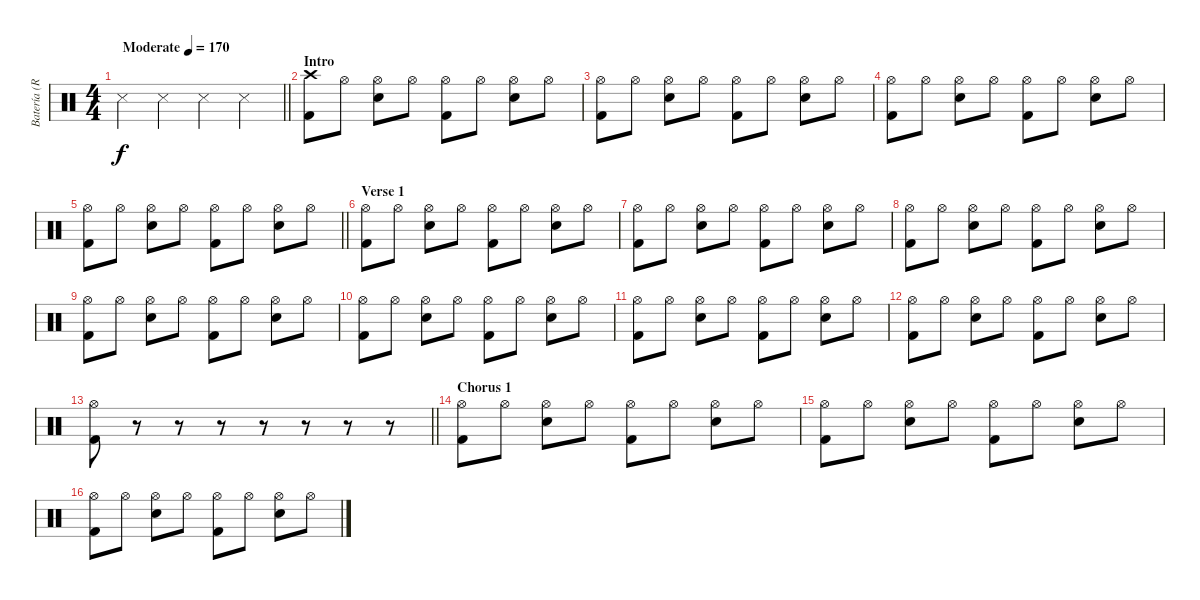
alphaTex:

\track ("Batería (Richie)" "Batería (R") {instrument percussion}
\staff {score}
\articulation defaults
\ts (4 4)
\tempo (170 "Moderate")
\clef neutral
\barLineRight lightlight
\ks c "Snare (side stick) 3".4{dy f} "Snare (side stick) 3".4 "Snare (side stick) 3".4 "Snare (side stick) 3".4
|
\section ("" "Intro")
("Crash high (hit)" "Kick (hit) 2").8 "Hi-Hat (open)".8 ("Hi-Hat (open)" "Snare (hit) 2").8 "Hi-Hat (open)".8 ("Hi-Hat (open)" "Kick (hit) 2").8 "Hi-Hat (open)".8 ("Hi-Hat (open)" "Snare (hit) 2").8 "Hi-Hat (open)".8 |
("Hi-Hat (open)" "Kick (hit) 2").8 "Hi-Hat (open)".8 ("Hi-Hat (open)" "Snare (hit) 2").8 "Hi-Hat (open)".8 ("Hi-Hat (open)" "Kick (hit) 2").8 "Hi-Hat (open)".8 ("Hi-Hat (open)" "Snare (hit) 2").8 "Hi-Hat (open)".8 |
("Hi-Hat (open)" "Kick (hit) 2").8 "Hi-Hat (open)".8 ("Hi-Hat (open)" "Snare (hit) 2").8 "Hi-Hat (open)".8 ("Hi-Hat (open)" "Kick (hit) 2").8 "Hi-Hat (open)".8 ("Hi-Hat (open)" "Snare (hit) 2").8 "Hi-Hat (open)".8 |
\barLineRight lightlight
("Hi-Hat (open)" "Kick (hit) 2").8 "Hi-Hat (open)".8 ("Hi-Hat (open)" "Snare (hit) 2").8 "Hi-Hat (open)".8 ("Hi-Hat (open)" "Kick (hit) 2").8 "Hi-Hat (open)".8 ("Hi-Hat (open)" "Snare (hit) 2").8 "Hi-Hat (open)".8 |
\section ("" "Verse 1")
("Hi-Hat (open)" "Kick (hit) 2").8 "Hi-Hat (open)".8 ("Hi-Hat (open)" "Snare (hit) 2").8 "Hi-Hat (open)".8 ("Hi-Hat (open)" "Kick (hit) 2").8 "Hi-Hat (open)".8 ("Hi-Hat (open)" "Snare (hit) 2").8 "Hi-Hat (open)".8 |
("Hi-Hat (open)" "Kick (hit) 2").8 "Hi-Hat (open)".8 ("Hi-Hat (open)" "Snare (hit) 2").8 "Hi-Hat (open)".8 ("Hi-Hat (open)" "Kick (hit) 2").8 "Hi-Hat (open)".8 ("Hi-Hat (open)" "Snare (hit) 2").8 "Hi-Hat (open)".8 |
("Hi-Hat (open)" "Kick (hit) 2").8 "Hi-Hat (open)".8 ("Hi-Hat (open)" "Snare (hit) 2").8 "Hi-Hat (open)".8 ("Hi-Hat (open)" "Kick (hit) 2").8 "Hi-Hat (open)".8 ("Hi-Hat (open)" "Snare (hit) 2").8 "Hi-Hat (open)".8 |
("Hi-Hat (open)" "Kick (hit) 2").8 "Hi-Hat (open)".8 ("Hi-Hat (open)" "Snare (hit) 2").8 "Hi-Hat (open)".8 ("Hi-Hat (open)" "Kick (hit) 2").8 "Hi-Hat (open)".8 ("Hi-Hat (open)" "Snare (hit) 2").8 "Hi-Hat (open)".8 |
("Hi-Hat (open)" "Kick (hit) 2").8 "Hi-Hat (open)".8 ("Hi-Hat (open)" "Snare (hit) 2").8 "Hi-Hat (open)".8 ("Hi-Hat (open)" "Kick (hit) 2").8 "Hi-Hat (open)".8 ("Hi-Hat (open)" "Snare (hit) 2").8 "Hi-Hat (open)".8 |
("Hi-Hat (open)" "Kick (hit) 2").8 "Hi-Hat (open)".8 ("Hi-Hat (open)" "Snare (hit) 2").8 "Hi-Hat (open)".8 ("Hi-Hat (open)" "Kick (hit) 2").8 "Hi-Hat (open)".8 ("Hi-Hat (open)" "Snare (hit) 2").8 "Hi-Hat (open)".8 |
("Hi-Hat (open)" "Kick (hit) 2").8 "Hi-Hat (open)".8 ("Hi-Hat (open)" "Snare (hit) 2").8 "Hi-Hat (open)".8 ("Hi-Hat (open)" "Kick (hit) 2").8 "Hi-Hat (open)".8 ("Hi-Hat (open)" "Snare (hit) 2").8 "Hi-Hat (open)".8 |
\barLineRight lightlight
("Hi-Hat (open)" "Kick (hit) 2").8 r.8 r.8 r.8 r.8 r.8 r.8 r.8 |
\section ("" "Chorus 1")
("Hi-Hat (open)" "Kick (hit) 2").8 "Hi-Hat (open)".8 ("Hi-Hat (open)" "Snare (hit) 2").8 "Hi-Hat (open)".8 ("Hi-Hat (open)" "Kick (hit) 2").8 "Hi-Hat (open)".8 ("Hi-Hat (open)" "Snare (hit) 2").8 "Hi-Hat (open)".8 |
("Hi-Hat (open)" "Kick (hit) 2").8 "Hi-Hat (open)".8 ("Hi-Hat (open)" "Snare (hit) 2").8 "Hi-Hat (open)".8 ("Hi-Hat (open)" "Kick (hit) 2").8 "Hi-Hat (open)".8 ("Hi-Hat (open)" "Snare (hit) 2").8 "Hi-Hat (open)".8 |
("Hi-Hat (open)" "Kick (hit) 2").8 "Hi-Hat (open)".8 ("Hi-Hat (open)" "Snare (hit) 2").8 "Hi-Hat (open)".8 ("Hi-Hat (open)" "Kick (hit) 2").8 "Hi-Hat (open)".8 ("Hi-Hat (open)" "Snare (hit) 2").8 "Hi-Hat (open)".8
